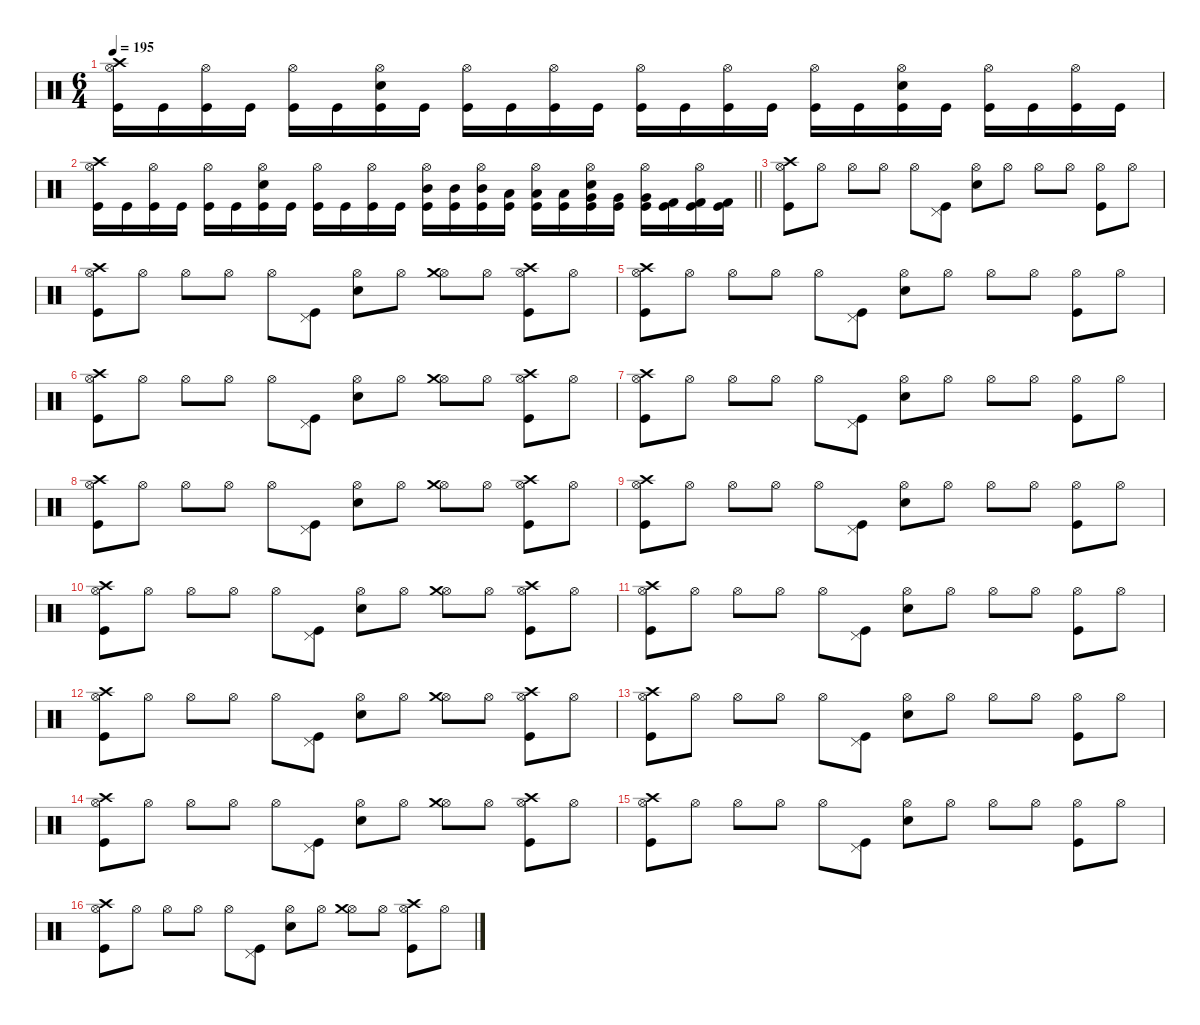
\defaultSystemsLayout 4
\hideDynamics
\bracketExtendMode nobrackets
\singleTrackTrackNamePolicy hidden
\multiTrackTrackNamePolicy hidden
\firstSystemTrackNameMode fullname
\firstSystemTrackNameOrientation horizontal
\otherSystemsTrackNameOrientation horizontal
\track ("Percussion" "drm.") {defaultSystemsLayout 4 instrument percussion}
\staff {score}
\articulation defaults
\ts (6 4)
\tempo 195
\clef neutral
\ks c
("Crash high (hit)" "Hi-Hat (open)" "Kick (hit)").16{dy f beam Down} "Kick (hit)".16{beam Down} ("Hi-Hat (open)" "Kick (hit)").16{beam Down} "Kick (hit)".16{beam Down} ("Hi-Hat (open)" "Kick (hit)").16{beam Down} "Kick (hit)".16{beam Down} ("Snare (hit) 2" "Hi-Hat (open)" "Kick (hit)").16{beam Down} "Kick (hit)".16{beam Down} ("Hi-Hat (open)" "Kick (hit)").16{beam Down} "Kick (hit)".16{beam Down} ("Hi-Hat (open)" "Kick (hit)").16{beam Down} "Kick (hit)".16{beam Down} ("Hi-Hat (open)" "Kick (hit)").16{beam Down} "Kick (hit)".16{beam Down} ("Hi-Hat (open)" "Kick (hit)").16{beam Down} "Kick (hit)".16{beam Down} ("Hi-Hat (open)" "Kick (hit)").16{beam Down} "Kick (hit)".16{beam Down} ("Snare (hit) 2" "Hi-Hat (open)" "Kick (hit)").16{beam Down} "Kick (hit)".16{beam Down} ("Hi-Hat (open)" "Kick (hit)").16{beam Down} "Kick (hit)".16{beam Down} ("Hi-Hat (open)" "Kick (hit)").16{beam Down} "Kick (hit)".16{beam Down} |
\barLineRight lightlight
("Crash high (hit)" "Hi-Hat (open)" "Kick (hit)").16{beam Down} "Kick (hit)".16{beam Down} ("Hi-Hat (open)" "Kick (hit)").16{beam Down} "Kick (hit)".16{beam Down} ("Hi-Hat (open)" "Kick (hit)").16{beam Down} "Kick (hit)".16{beam Down} ("Snare (hit) 2" "Hi-Hat (open)" "Kick (hit)").16{beam Down} "Kick (hit)".16{beam Down} ("Hi-Hat (open)" "Kick (hit)").16{beam Down} "Kick (hit)".16{beam Down} ("Hi-Hat (open)" "Kick (hit)").16{beam Down} "Kick (hit)".16{beam Down} ("Hi-Hat (open)" "Mid Tom (hit)" "Kick (hit)").16{beam Down} ("Mid Tom (hit)" "Kick (hit)").16{beam Down} ("Hi-Hat (open)" "Mid Tom (hit)" "Kick (hit)").16{beam Down} ("Low Tom (hit)" "Kick (hit)").16{beam Down} ("Hi-Hat (open)" "Low Tom (hit)" "Kick (hit)").16{beam Down} ("Low Tom (hit)" "Kick (hit)").16{beam Down} ("Snare (hit) 2" "Hi-Hat (open)" "Very Low Tom (hit)" "Kick (hit)").16{beam Down} ("Very Low Tom (hit)" "Kick (hit)").16{beam Down} ("Hi-Hat (open)" "Very Low Tom (hit)" "Kick (hit)").16{beam Down} ("Kick (hit) 2" "Kick (hit)").16{beam Down} ("Hi-Hat (open)" "Kick (hit) 2" "Kick (hit)").16{beam Down} ("Kick (hit) 2" "Kick (hit)").16{beam Down} |
("Crash high (hit)" "Hi-Hat (open)" "Kick (hit)").8{beam Down} "Hi-Hat (open)".8{beam Down} "Hi-Hat (open)".8{beam Down} "Hi-Hat (open)".8{beam Down} "Hi-Hat (open)".8{beam Down} ("Pedal Hi-Hat (hit)" "Kick (hit)").8{beam Down} ("Hi-Hat (open)" "Snare (hit) 2").8{beam Down} "Hi-Hat (open)".8{beam Down} "Hi-Hat (open)".8{beam Down} "Hi-Hat (open)".8{beam Down} ("Hi-Hat (open)" "Kick (hit)").8{beam Down} "Hi-Hat (open)".8{beam Down} |
("Crash high (hit)" "Hi-Hat (open)" "Kick (hit)").8{beam Down} "Hi-Hat (open)".8{beam Down} "Hi-Hat (open)".8{beam Down} "Hi-Hat (open)".8{beam Down} "Hi-Hat (open)".8{beam Down} ("Pedal Hi-Hat (hit)" "Kick (hit)").8{beam Down} ("Hi-Hat (open)" "Snare (hit) 2").8{beam Down} "Hi-Hat (open)".8{beam Down} ("Hi-Hat (open)" "Crash medium (hit)").8{beam Down} "Hi-Hat (open)".8{beam Down} ("Hi-Hat (open)" "Crash high (hit)" "Kick (hit)").8{beam Down} "Hi-Hat (open)".8{beam Down} |
("Crash high (hit)" "Hi-Hat (open)" "Kick (hit)").8{beam Down} "Hi-Hat (open)".8{beam Down} "Hi-Hat (open)".8{beam Down} "Hi-Hat (open)".8{beam Down} "Hi-Hat (open)".8{beam Down} ("Pedal Hi-Hat (hit)" "Kick (hit)").8{beam Down} ("Hi-Hat (open)" "Snare (hit) 2").8{beam Down} "Hi-Hat (open)".8{beam Down} "Hi-Hat (open)".8{beam Down} "Hi-Hat (open)".8{beam Down} ("Hi-Hat (open)" "Kick (hit)").8{beam Down} "Hi-Hat (open)".8{beam Down} |
("Crash high (hit)" "Hi-Hat (open)" "Kick (hit)").8{beam Down} "Hi-Hat (open)".8{beam Down} "Hi-Hat (open)".8{beam Down} "Hi-Hat (open)".8{beam Down} "Hi-Hat (open)".8{beam Down} ("Pedal Hi-Hat (hit)" "Kick (hit)").8{beam Down} ("Hi-Hat (open)" "Snare (hit) 2").8{beam Down} "Hi-Hat (open)".8{beam Down} ("Hi-Hat (open)" "Crash medium (hit)").8{beam Down} "Hi-Hat (open)".8{beam Down} ("Hi-Hat (open)" "Crash high (hit)" "Kick (hit)").8{beam Down} "Hi-Hat (open)".8{beam Down} |
("Crash high (hit)" "Hi-Hat (open)" "Kick (hit)").8{beam Down} "Hi-Hat (open)".8{beam Down} "Hi-Hat (open)".8{beam Down} "Hi-Hat (open)".8{beam Down} "Hi-Hat (open)".8{beam Down} ("Pedal Hi-Hat (hit)" "Kick (hit)").8{beam Down} ("Hi-Hat (open)" "Snare (hit) 2").8{beam Down} "Hi-Hat (open)".8{beam Down} "Hi-Hat (open)".8{beam Down} "Hi-Hat (open)".8{beam Down} ("Hi-Hat (open)" "Kick (hit)").8{beam Down} "Hi-Hat (open)".8{beam Down} |
("Crash high (hit)" "Hi-Hat (open)" "Kick (hit)").8{beam Down} "Hi-Hat (open)".8{beam Down} "Hi-Hat (open)".8{beam Down} "Hi-Hat (open)".8{beam Down} "Hi-Hat (open)".8{beam Down} ("Pedal Hi-Hat (hit)" "Kick (hit)").8{beam Down} ("Hi-Hat (open)" "Snare (hit) 2").8{beam Down} "Hi-Hat (open)".8{beam Down} ("Hi-Hat (open)" "Crash medium (hit)").8{beam Down} "Hi-Hat (open)".8{beam Down} ("Hi-Hat (open)" "Crash high (hit)" "Kick (hit)").8{beam Down} "Hi-Hat (open)".8{beam Down} |
("Crash high (hit)" "Hi-Hat (open)" "Kick (hit)").8{beam Down} "Hi-Hat (open)".8{beam Down} "Hi-Hat (open)".8{beam Down} "Hi-Hat (open)".8{beam Down} "Hi-Hat (open)".8{beam Down} ("Pedal Hi-Hat (hit)" "Kick (hit)").8{beam Down} ("Hi-Hat (open)" "Snare (hit) 2").8{beam Down} "Hi-Hat (open)".8{beam Down} "Hi-Hat (open)".8{beam Down} "Hi-Hat (open)".8{beam Down} ("Hi-Hat (open)" "Kick (hit)").8{beam Down} "Hi-Hat (open)".8{beam Down} |
("Crash high (hit)" "Hi-Hat (open)" "Kick (hit)").8{beam Down} "Hi-Hat (open)".8{beam Down} "Hi-Hat (open)".8{beam Down} "Hi-Hat (open)".8{beam Down} "Hi-Hat (open)".8{beam Down} ("Pedal Hi-Hat (hit)" "Kick (hit)").8{beam Down} ("Hi-Hat (open)" "Snare (hit) 2").8{beam Down} "Hi-Hat (open)".8{beam Down} ("Hi-Hat (open)" "Crash medium (hit)").8{beam Down} "Hi-Hat (open)".8{beam Down} ("Hi-Hat (open)" "Crash high (hit)" "Kick (hit)").8{beam Down} "Hi-Hat (open)".8{beam Down} |
("Crash high (hit)" "Hi-Hat (open)" "Kick (hit)").8{beam Down} "Hi-Hat (open)".8{beam Down} "Hi-Hat (open)".8{beam Down} "Hi-Hat (open)".8{beam Down} "Hi-Hat (open)".8{beam Down} ("Pedal Hi-Hat (hit)" "Kick (hit)").8{beam Down} ("Hi-Hat (open)" "Snare (hit) 2").8{beam Down} "Hi-Hat (open)".8{beam Down} "Hi-Hat (open)".8{beam Down} "Hi-Hat (open)".8{beam Down} ("Hi-Hat (open)" "Kick (hit)").8{beam Down} "Hi-Hat (open)".8{beam Down} |
("Crash high (hit)" "Hi-Hat (open)" "Kick (hit)").8{beam Down} "Hi-Hat (open)".8{beam Down} "Hi-Hat (open)".8{beam Down} "Hi-Hat (open)".8{beam Down} "Hi-Hat (open)".8{beam Down} ("Pedal Hi-Hat (hit)" "Kick (hit)").8{beam Down} ("Hi-Hat (open)" "Snare (hit) 2").8{beam Down} "Hi-Hat (open)".8{beam Down} ("Hi-Hat (open)" "Crash medium (hit)").8{beam Down} "Hi-Hat (open)".8{beam Down} ("Hi-Hat (open)" "Crash high (hit)" "Kick (hit)").8{beam Down} "Hi-Hat (open)".8{beam Down} |
("Crash high (hit)" "Hi-Hat (open)" "Kick (hit)").8{beam Down} "Hi-Hat (open)".8{beam Down} "Hi-Hat (open)".8{beam Down} "Hi-Hat (open)".8{beam Down} "Hi-Hat (open)".8{beam Down} ("Pedal Hi-Hat (hit)" "Kick (hit)").8{beam Down} ("Hi-Hat (open)" "Snare (hit) 2").8{beam Down} "Hi-Hat (open)".8{beam Down} "Hi-Hat (open)".8{beam Down} "Hi-Hat (open)".8{beam Down} ("Hi-Hat (open)" "Kick (hit)").8{beam Down} "Hi-Hat (open)".8{beam Down} |
("Crash high (hit)" "Hi-Hat (open)" "Kick (hit)").8{beam Down} "Hi-Hat (open)".8{beam Down} "Hi-Hat (open)".8{beam Down} "Hi-Hat (open)".8{beam Down} "Hi-Hat (open)".8{beam Down} ("Pedal Hi-Hat (hit)" "Kick (hit)").8{beam Down} ("Hi-Hat (open)" "Snare (hit) 2").8{beam Down} "Hi-Hat (open)".8{beam Down} ("Hi-Hat (open)" "Crash medium (hit)").8{beam Down} "Hi-Hat (open)".8{beam Down} ("Hi-Hat (open)" "Crash high (hit)" "Kick (hit)").8{beam Down} "Hi-Hat (open)".8{beam Down} |
("Crash high (hit)" "Hi-Hat (open)" "Kick (hit)").8{beam Down} "Hi-Hat (open)".8{beam Down} "Hi-Hat (open)".8{beam Down} "Hi-Hat (open)".8{beam Down} "Hi-Hat (open)".8{beam Down} ("Pedal Hi-Hat (hit)" "Kick (hit)").8{beam Down} ("Hi-Hat (open)" "Snare (hit) 2").8{beam Down} "Hi-Hat (open)".8{beam Down} "Hi-Hat (open)".8{beam Down} "Hi-Hat (open)".8{beam Down} ("Hi-Hat (open)" "Kick (hit)").8{beam Down} "Hi-Hat (open)".8{beam Down} |
("Crash high (hit)" "Hi-Hat (open)" "Kick (hit)").8{beam Down} "Hi-Hat (open)".8{beam Down} "Hi-Hat (open)".8{beam Down} "Hi-Hat (open)".8{beam Down} "Hi-Hat (open)".8{beam Down} ("Pedal Hi-Hat (hit)" "Kick (hit)").8{beam Down} ("Hi-Hat (open)" "Snare (hit) 2").8{beam Down} "Hi-Hat (open)".8{beam Down} ("Hi-Hat (open)" "Crash medium (hit)").8{beam Down} "Hi-Hat (open)".8{beam Down} ("Hi-Hat (open)" "Crash high (hit)" "Kick (hit)").8{beam Down} "Hi-Hat (open)".8{beam Down}
